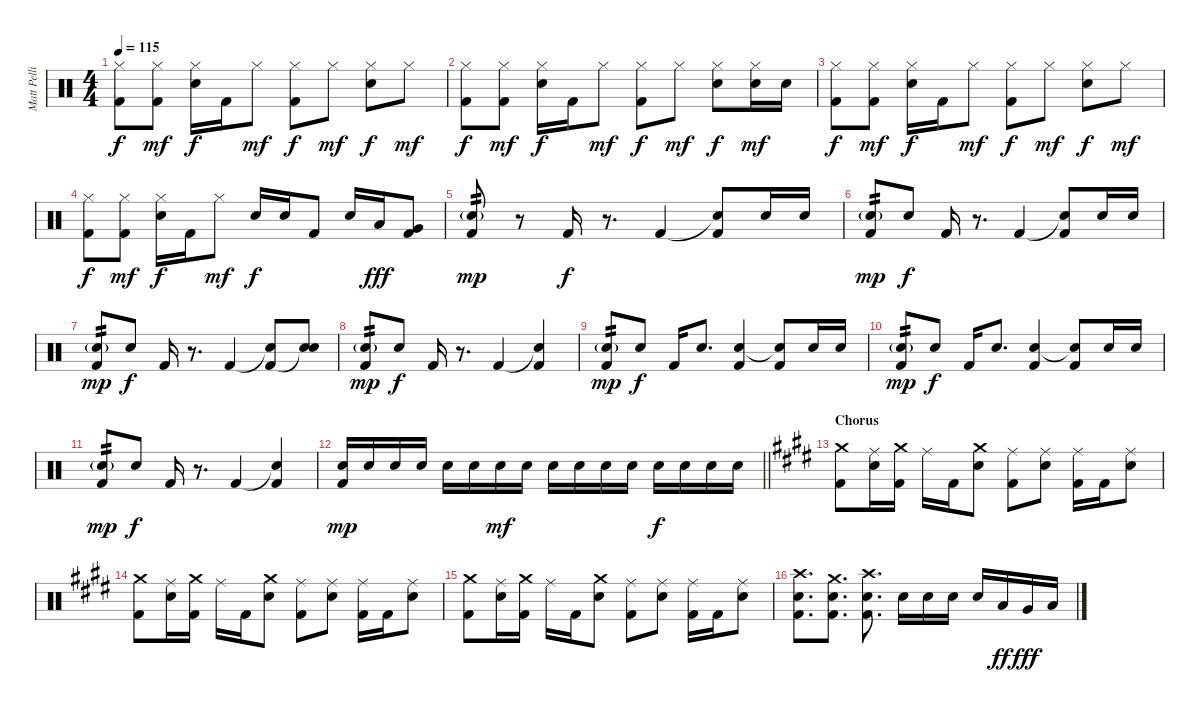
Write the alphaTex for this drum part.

\track ("Matt Pellissier" "Matt Pelli") {instrument percussion}
\staff {score}
\articulation defaults
\ts (4 4)
\tempo 115
\clef neutral
\ks c
("Hi-Hat (closed)" "Kick (hit) 2").8{dy f} ("Hi-Hat (closed)" "Kick (hit) 2").8{dy mf} ("Hi-Hat (closed)" "Snare (hit) 2").16{dy f} "Kick (hit) 2".16 "Hi-Hat (closed)".8{dy mf} ("Hi-Hat (closed)" "Kick (hit) 2").8{dy f} "Hi-Hat (closed)".8{dy mf} ("Hi-Hat (closed)" "Snare (hit) 2").8{dy f} "Hi-Hat (closed)".8{dy mf} |
("Hi-Hat (closed)" "Kick (hit) 2").8{dy f} ("Hi-Hat (closed)" "Kick (hit) 2").8{dy mf} ("Hi-Hat (closed)" "Snare (hit) 2").16{dy f} "Kick (hit) 2".16 "Hi-Hat (closed)".8{dy mf} ("Hi-Hat (closed)" "Kick (hit) 2").8{dy f} "Hi-Hat (closed)".8{dy mf} ("Hi-Hat (closed)" "Snare (hit) 2").8{dy f} ("Hi-Hat (closed)" "Snare (hit) 2").16{dy mf} "Snare (hit) 2".16 |
("Hi-Hat (closed)" "Kick (hit) 2").8{dy f} ("Hi-Hat (closed)" "Kick (hit) 2").8{dy mf} ("Hi-Hat (closed)" "Snare (hit) 2").16{dy f} "Kick (hit) 2".16 "Hi-Hat (closed)".8{dy mf} ("Hi-Hat (closed)" "Kick (hit) 2").8{dy f} "Hi-Hat (closed)".8{dy mf} ("Hi-Hat (closed)" "Snare (hit) 2").8{dy f} "Hi-Hat (closed)".8{dy mf} |
("Hi-Hat (closed)" "Kick (hit) 2").8{dy f} ("Hi-Hat (closed)" "Kick (hit) 2").8{dy mf} ("Hi-Hat (closed)" "Snare (hit) 2").16{dy f} "Kick (hit) 2".16 "Hi-Hat (closed)".8{dy mf} "Snare (hit) 2".16{dy f} "Snare (hit) 2".16 "Kick (hit) 2".8 "Snare (hit) 2".16 "Low Tom (hit)".16{dy fff} ("Very Low Tom (hit)" "Kick (hit) 2").8 |
("Snare (hit) 2"{g} "Kick (hit) 2").8{tp 2 dy mp} r.8 "Kick (hit) 2".16{dy f} r.8{d} "Kick (hit) 2".4 ("Snare (hit)"{t} "Kick (hit) 2").8 "Snare (hit) 2".16 "Snare (hit) 2".16 |
("Snare (hit) 2"{g} "Kick (hit) 2").8{tp 2 dy mp} "Snare (hit) 2".8{dy f} "Kick (hit) 2".16 r.8{d} "Kick (hit) 2".4 ("Snare (hit)"{t} "Kick (hit) 2").8 "Snare (hit) 2".16 "Snare (hit) 2".16 |
("Snare (hit) 2"{g} "Kick (hit) 2").8{tp 2 dy mp} "Snare (hit) 2".8{dy f} "Kick (hit) 2".16 r.8{d} "Kick (hit) 2".4 ("Snare (hit)"{t} "Kick (hit) 2").8 ("Snare (hit) 2" "Snare (hit)"{t}).8 |
("Snare (hit) 2"{g} "Kick (hit) 2").8{tp 2 dy mp} "Snare (hit) 2".8{dy f} "Kick (hit) 2".16 r.8{d} "Kick (hit) 2".4 ("Snare (hit)"{t} "Kick (hit) 2").4 |
("Snare (hit) 2"{g} "Kick (hit) 2").8{tp 2 dy mp} "Snare (hit) 2".8{dy f} "Kick (hit) 2".16 "Snare (hit) 2".8{d} ("Snare (hit) 2" "Kick (hit) 2").4 ("Snare (hit)"{t} "Kick (hit) 2").8 "Snare (hit) 2".16 "Snare (hit) 2".16 |
("Snare (hit) 2"{g} "Kick (hit) 2").8{tp 2 dy mp} "Snare (hit) 2".8{dy f} "Kick (hit) 2".16 "Snare (hit) 2".8{d} ("Snare (hit) 2" "Kick (hit) 2").4 ("Snare (hit)"{t} "Kick (hit) 2").8 "Snare (hit) 2".16 "Snare (hit) 2".16 |
("Snare (hit) 2"{g} "Kick (hit) 2").8{tp 2 dy mp} "Snare (hit) 2".8{dy f} "Kick (hit) 2".16 r.8{d} "Kick (hit) 2".4 ("Snare (hit)"{t} "Kick (hit) 2").4 |
\barLineRight lightlight
("Snare (hit) 2" "Kick (hit) 2").16{dy mp volume 16} "Snare (hit) 2".16 "Snare (hit) 2".16 "Snare (hit) 2".16 "Snare (hit) 2".16 "Snare (hit) 2".16 "Snare (hit) 2".16{dy mf} "Snare (hit) 2".16 "Snare (hit) 2".16 "Snare (hit) 2".16 "Snare (hit) 2".16 "Snare (hit) 2".16 "Snare (hit) 2".16{dy f} "Snare (hit) 2".16 "Snare (hit) 2".16 "Snare (hit) 2".16 |
\section ("" "Chorus")
\ks e
("Crash medium (hit)" "Kick (hit) 2").8{volume 14} ("Ride (middle)" "Snare (hit) 2").16 ("Crash medium (hit)" "Kick (hit) 2").16 "Ride (middle)".16 "Kick (hit) 2".16 ("Crash medium (hit)" "Snare (hit) 2").8 ("Ride (middle)" "Kick (hit) 2").8 ("Ride (middle)" "Snare (hit) 2").8 ("Ride (middle)" "Kick (hit) 2").16 "Kick (hit) 2".16 ("Ride (middle)" "Snare (hit) 2").8 |
("Crash medium (hit)" "Kick (hit) 2").8 ("Ride (middle)" "Snare (hit) 2").16 ("Crash medium (hit)" "Kick (hit) 2").16 "Ride (middle)".16 "Kick (hit) 2".16 ("Crash medium (hit)" "Snare (hit) 2").8 ("Ride (middle)" "Kick (hit) 2").8 ("Ride (middle)" "Snare (hit) 2").8 ("Ride (middle)" "Kick (hit) 2").16 "Kick (hit) 2".16 ("Ride (middle)" "Snare (hit) 2").8 |
("Crash medium (hit)" "Kick (hit) 2").8 ("Ride (middle)" "Snare (hit) 2").16 ("Crash medium (hit)" "Kick (hit) 2").16 "Ride (middle)".16 "Kick (hit) 2".16 ("Crash medium (hit)" "Snare (hit) 2").8 ("Ride (middle)" "Kick (hit) 2").8 ("Ride (middle)" "Snare (hit) 2").8 ("Ride (middle)" "Kick (hit) 2").16 "Kick (hit) 2".16 ("Ride (middle)" "Snare (hit) 2").8 |
("Crash high (hit)" "Snare (hit) 2" "Kick (hit) 2").8{d} ("Crash medium (hit)" "Snare (hit) 2" "Kick (hit) 2").8{d} ("Crash high (hit)" "Snare (hit) 2" "Kick (hit) 2").8{d} "Snare (hit) 2".16 "Snare (hit) 2".16 "Snare (hit) 2".16 "Snare (hit) 2".16 "Low Tom (hit)".16{dy ff} "Very Low Tom (hit)".16{dy fff} "Low Floor Tom (hit)".16
